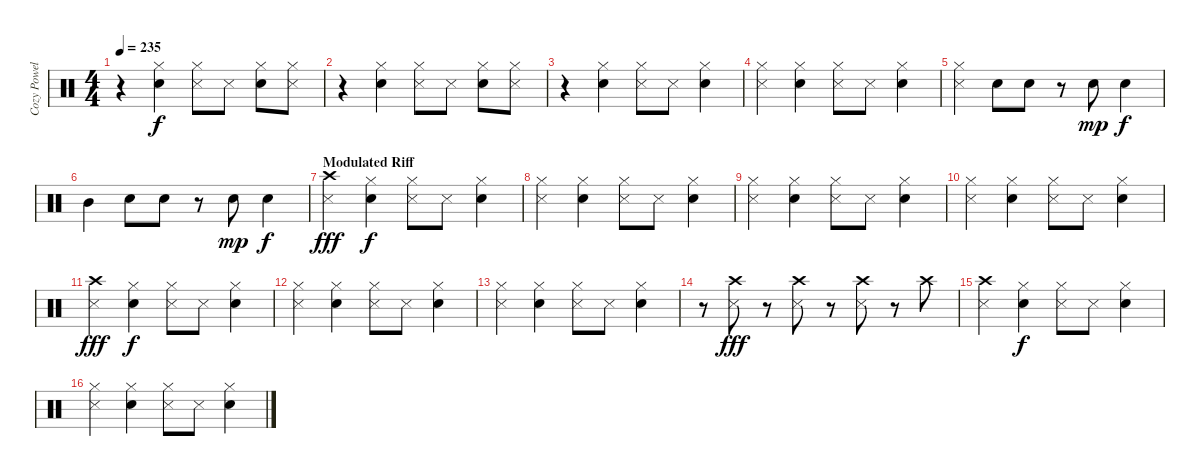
\track ("Cozy Powell" "Cozy Powel") {instrument percussion}
\staff {score}
\articulation defaults
\ts (4 4)
\tempo 235
\clef neutral
\ks c
r.4{dy f} ("Electric Snare (hit)" "Hi-Hat (closed)").4 ("Hi-Hat (closed)" "Metronome (hit)").8 "Metronome (hit)".8 ("Electric Snare (hit)" "Hi-Hat (closed)").8 ("Metronome (hit)" "Hi-Hat (closed)").8 |
r.4 ("Electric Snare (hit)" "Hi-Hat (closed)").4 ("Metronome (hit)" "Hi-Hat (closed)").8 "Metronome (hit)".8 ("Electric Snare (hit)" "Hi-Hat (closed)").8 ("Metronome (hit)" "Hi-Hat (closed)").8 |
r.4 ("Electric Snare (hit)" "Hi-Hat (closed)").4 ("Metronome (hit)" "Hi-Hat (closed)").8 "Metronome (hit)".8 ("Hi-Hat (closed)" "Electric Snare (hit)").4 |
("Metronome (hit)" "Hi-Hat (closed)").4 ("Electric Snare (hit)" "Hi-Hat (closed)").4 ("Metronome (hit)" "Hi-Hat (closed)").8 "Metronome (hit)".8 ("Electric Snare (hit)" "Hi-Hat (closed)").4 |
("Metronome (hit)" "Hi-Hat (closed)").4 "Electric Snare (hit)".8 "Electric Snare (hit)".8 r.8 "Electric Snare (hit)".8{dy mp} "Electric Snare (hit)".4{dy f} |
"Mid Tom (hit)".4 "Electric Snare (hit)".8 "Electric Snare (hit)".8 r.8 "Electric Snare (hit)".8{dy mp} "Electric Snare (hit)".4{dy f} |
\section ("" "Modulated Riff")
("Crash high (hit)" "Metronome (hit)").4{dy fff} ("Electric Snare (hit)" "Hi-Hat (closed)").4{dy f} ("Hi-Hat (closed)" "Metronome (hit)").8 "Metronome (hit)".8 ("Electric Snare (hit)" "Hi-Hat (closed)").4 |
("Hi-Hat (closed)" "Metronome (hit)").4 ("Electric Snare (hit)" "Hi-Hat (closed)").4 ("Hi-Hat (closed)" "Metronome (hit)").8 "Metronome (hit)".8 ("Electric Snare (hit)" "Hi-Hat (closed)").4 |
("Hi-Hat (closed)" "Metronome (hit)").4 ("Hi-Hat (closed)" "Electric Snare (hit)").4 ("Hi-Hat (closed)" "Metronome (hit)").8 "Metronome (hit)".8 ("Hi-Hat (closed)" "Electric Snare (hit)").4 |
("Metronome (hit)" "Hi-Hat (closed)").4 ("Hi-Hat (closed)" "Electric Snare (hit)").4 ("Hi-Hat (closed)" "Metronome (hit)").8 "Metronome (hit)".8 ("Electric Snare (hit)" "Hi-Hat (closed)").4 |
("Crash high (hit)" "Metronome (hit)").4{dy fff} ("Hi-Hat (closed)" "Electric Snare (hit)").4{dy f} ("Metronome (hit)" "Hi-Hat (closed)").8 "Metronome (hit)".8 ("Electric Snare (hit)" "Hi-Hat (closed)").4 |
("Metronome (hit)" "Hi-Hat (closed)").4 ("Electric Snare (hit)" "Hi-Hat (closed)").4 ("Metronome (hit)" "Hi-Hat (closed)").8 "Metronome (hit)".8 ("Electric Snare (hit)" "Hi-Hat (closed)").4 |
("Hi-Hat (closed)" "Metronome (hit)").4 ("Electric Snare (hit)" "Hi-Hat (closed)").4 ("Hi-Hat (closed)" "Metronome (hit)").8 "Metronome (hit)".8 ("Electric Snare (hit)" "Hi-Hat (closed)").4 |
r.8 ("Crash high (hit)" "Metronome (hit)").8{dy fff} r.8 ("Crash high (hit)" "Metronome (hit)").8 r.8 ("Metronome (hit)" "Crash high (hit)").8 r.8 "Crash high (hit)".8 |
("Metronome (hit)" "Crash high (hit)").4 ("Hi-Hat (closed)" "Electric Snare (hit)").4{dy f} ("Hi-Hat (closed)" "Metronome (hit)").8 "Metronome (hit)".8 ("Electric Snare (hit)" "Hi-Hat (closed)").4 |
("Hi-Hat (closed)" "Metronome (hit)").4 ("Electric Snare (hit)" "Hi-Hat (closed)").4 ("Hi-Hat (closed)" "Metronome (hit)").8 "Metronome (hit)".8 ("Electric Snare (hit)" "Hi-Hat (closed)").4
